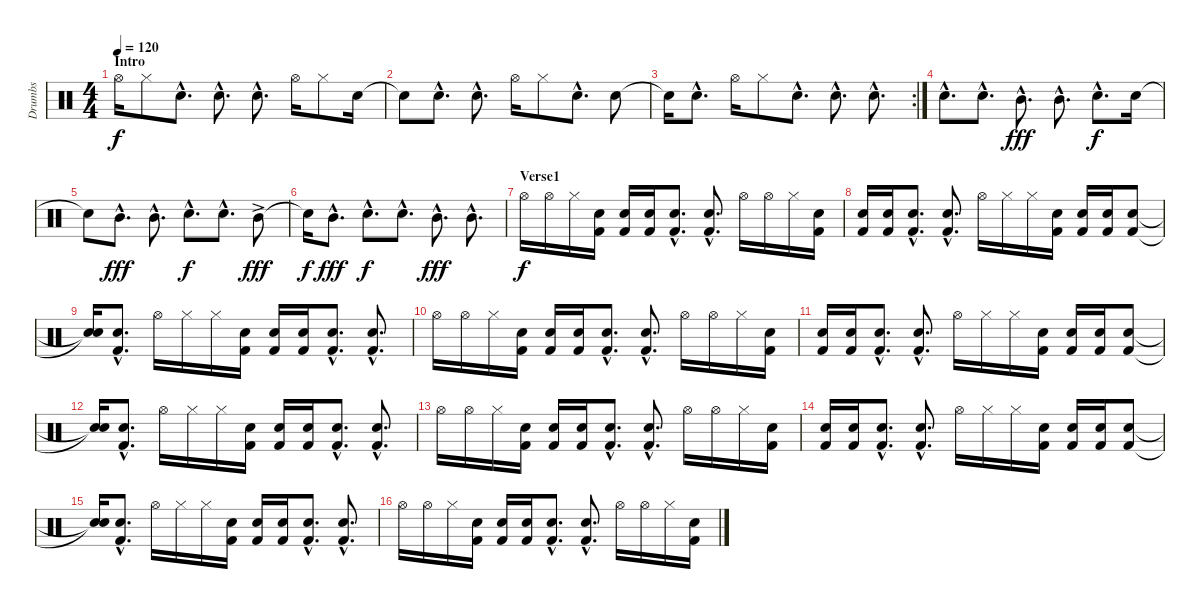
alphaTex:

\track ("Drumbs" "Drumbs") {instrument percussion}
\staff {score}
\articulation defaults
\ts (4 4)
\section ("" "Intro")
\tempo 120
\clef neutral
\ks c "Hi-Hat (open)".16{dy f} "Hi-Hat (closed)".8 "Electric Snare (hit)"{hac}.8{d} "Electric Snare (hit)"{hac}.8{d} "Electric Snare (hit)"{hac}.8{d} "Hi-Hat (open)".16 "Hi-Hat (closed)".8 "Electric Snare (hit)".16
|
"Snare (hit)"{t}.8 "Electric Snare (hit)"{hac}.8{d} "Electric Snare (hit)"{hac}.8{d} "Hi-Hat (open)".16 "Hi-Hat (closed)".8 "Snare (hit) 2"{hac}.8{d} "Snare (hit) 2".8 |
\rc 2 "Snare (hit)"{t}.16 "Snare (hit) 2"{hac}.8{d} "Hi-Hat (open)".16 "Hi-Hat (closed)".8 "Snare (hit) 2"{hac}.8{d} "Snare (hit) 2"{hac}.8{d} "Snare (hit) 2"{hac}.8{d}
|
"Snare (hit) 2"{hac}.8{d} "Electric Snare (hit)"{hac}.8{d} "Mid Tom (hit)"{hac}.8{d dy fff} "Mid Tom (hit)"{hac}.8{d} "Snare (hit) 2"{hac}.8{d dy f} "Electric Snare (hit)".16 |
"Snare (hit)"{t}.8 "Mid Tom (hit)"{hac}.8{d dy fff} "Mid Tom (hit)"{hac}.8{d} "Electric Snare (hit)"{hac}.8{d dy f} "Snare (hit) 2"{hac}.8{d} "Mid Tom (hit)"{ac}.8{dy fff} |
"Snare (hit)"{t}.16{dy f} "Mid Tom (hit)"{hac}.8{d dy fff} "Electric Snare (hit)"{hac}.8{d dy f} "Snare (hit) 2"{hac}.8{d} "Mid Tom (hit)"{hac}.8{d dy fff} "Mid Tom (hit)"{hac}.8{d} |
\section ("" "Verse1")
"Hi-Hat (open)".16{dy f} "Hi-Hat (open)".16 "Hi-Hat (closed)".16 ("Electric Snare (hit)" "Kick (hit) 2").16 ("Electric Snare (hit)" "Kick (hit) 2").16 ("Electric Snare (hit)" "Kick (hit) 2").16 ("Electric Snare (hit)"{hac} "Kick (hit) 2"{hac}).8{d} ("Electric Snare (hit)"{hac} "Kick (hit) 2"{hac}).8{d} "Hi-Hat (open)".16 "Hi-Hat (open)".16 "Hi-Hat (closed)".16 ("Electric Snare (hit)" "Kick (hit) 2").16 |
("Electric Snare (hit)" "Kick (hit) 2").16 ("Electric Snare (hit)" "Kick (hit) 2").16 ("Electric Snare (hit)"{hac} "Kick (hit) 2"{hac}).8{d} ("Electric Snare (hit)"{hac} "Kick (hit) 2"{hac}).8{d} "Hi-Hat (open)".16 "Hi-Hat (closed)".16 "Hi-Hat (closed)".16 ("Electric Snare (hit)" "Kick (hit) 2").16 ("Electric Snare (hit)" "Kick (hit) 2").16 ("Electric Snare (hit)" "Kick (hit) 2").16 ("Electric Snare (hit)" "Kick (hit) 2").8 |
("Snare (hit)"{t} "Snare (hit)"{t}).16 ("Electric Snare (hit)"{hac} "Kick (hit) 2"{hac}).8{d} "Hi-Hat (open)".16 "Hi-Hat (closed)".16 "Hi-Hat (closed)".16 ("Electric Snare (hit)" "Kick (hit) 2").16 ("Electric Snare (hit)" "Kick (hit) 2").16 ("Electric Snare (hit)" "Kick (hit) 2").16 ("Electric Snare (hit)"{hac} "Kick (hit) 2"{hac}).8{d} ("Electric Snare (hit)"{hac} "Kick (hit) 2"{hac}).8{d} |
"Hi-Hat (open)".16 "Hi-Hat (open)".16 "Hi-Hat (closed)".16 ("Electric Snare (hit)" "Kick (hit) 2").16 ("Electric Snare (hit)" "Kick (hit) 2").16 ("Electric Snare (hit)" "Kick (hit) 2").16 ("Electric Snare (hit)"{hac} "Kick (hit) 2"{hac}).8{d} ("Electric Snare (hit)"{hac} "Kick (hit) 2"{hac}).8{d} "Hi-Hat (open)".16 "Hi-Hat (open)".16 "Hi-Hat (closed)".16 ("Electric Snare (hit)" "Kick (hit) 2").16 |
("Electric Snare (hit)" "Kick (hit) 2").16 ("Electric Snare (hit)" "Kick (hit) 2").16 ("Electric Snare (hit)"{hac} "Kick (hit) 2"{hac}).8{d} ("Electric Snare (hit)"{hac} "Kick (hit) 2"{hac}).8{d} "Hi-Hat (open)".16 "Hi-Hat (closed)".16 "Hi-Hat (closed)".16 ("Electric Snare (hit)" "Kick (hit) 2").16 ("Electric Snare (hit)" "Kick (hit) 2").16 ("Electric Snare (hit)" "Kick (hit) 2").16 ("Electric Snare (hit)" "Kick (hit) 2").8 |
("Snare (hit)"{t} "Snare (hit)"{t}).16 ("Electric Snare (hit)"{hac} "Kick (hit) 2"{hac}).8{d} "Hi-Hat (open)".16 "Hi-Hat (closed)".16 "Hi-Hat (closed)".16 ("Electric Snare (hit)" "Kick (hit) 2").16 ("Electric Snare (hit)" "Kick (hit) 2").16 ("Electric Snare (hit)" "Kick (hit) 2").16 ("Electric Snare (hit)"{hac} "Kick (hit) 2"{hac}).8{d} ("Electric Snare (hit)"{hac} "Kick (hit) 2"{hac}).8{d} |
"Hi-Hat (open)".16 "Hi-Hat (open)".16 "Hi-Hat (closed)".16 ("Electric Snare (hit)" "Kick (hit) 2").16 ("Electric Snare (hit)" "Kick (hit) 2").16 ("Electric Snare (hit)" "Kick (hit) 2").16 ("Electric Snare (hit)"{hac} "Kick (hit) 2"{hac}).8{d} ("Electric Snare (hit)"{hac} "Kick (hit) 2"{hac}).8{d} "Hi-Hat (open)".16 "Hi-Hat (open)".16 "Hi-Hat (closed)".16 ("Electric Snare (hit)" "Kick (hit) 2").16 |
("Electric Snare (hit)" "Kick (hit) 2").16 ("Electric Snare (hit)" "Kick (hit) 2").16 ("Electric Snare (hit)"{hac} "Kick (hit) 2"{hac}).8{d} ("Electric Snare (hit)"{hac} "Kick (hit) 2"{hac}).8{d} "Hi-Hat (open)".16 "Hi-Hat (closed)".16 "Hi-Hat (closed)".16 ("Electric Snare (hit)" "Kick (hit) 2").16 ("Electric Snare (hit)" "Kick (hit) 2").16 ("Electric Snare (hit)" "Kick (hit) 2").16 ("Electric Snare (hit)" "Kick (hit) 2").8 |
("Snare (hit)"{t} "Snare (hit)"{t}).16 ("Electric Snare (hit)"{hac} "Kick (hit) 2"{hac}).8{d} "Hi-Hat (open)".16 "Hi-Hat (closed)".16 "Hi-Hat (closed)".16 ("Electric Snare (hit)" "Kick (hit) 2").16 ("Electric Snare (hit)" "Kick (hit) 2").16 ("Electric Snare (hit)" "Kick (hit) 2").16 ("Electric Snare (hit)"{hac} "Kick (hit) 2"{hac}).8{d} ("Electric Snare (hit)"{hac} "Kick (hit) 2"{hac}).8{d} |
"Hi-Hat (open)".16 "Hi-Hat (open)".16 "Hi-Hat (closed)".16 ("Electric Snare (hit)" "Kick (hit) 2").16 ("Electric Snare (hit)" "Kick (hit) 2").16 ("Electric Snare (hit)" "Kick (hit) 2").16 ("Electric Snare (hit)"{hac} "Kick (hit) 2"{hac}).8{d} ("Electric Snare (hit)"{hac} "Kick (hit) 2"{hac}).8{d} "Hi-Hat (open)".16 "Hi-Hat (open)".16 "Hi-Hat (closed)".16 ("Electric Snare (hit)" "Kick (hit) 2").16
